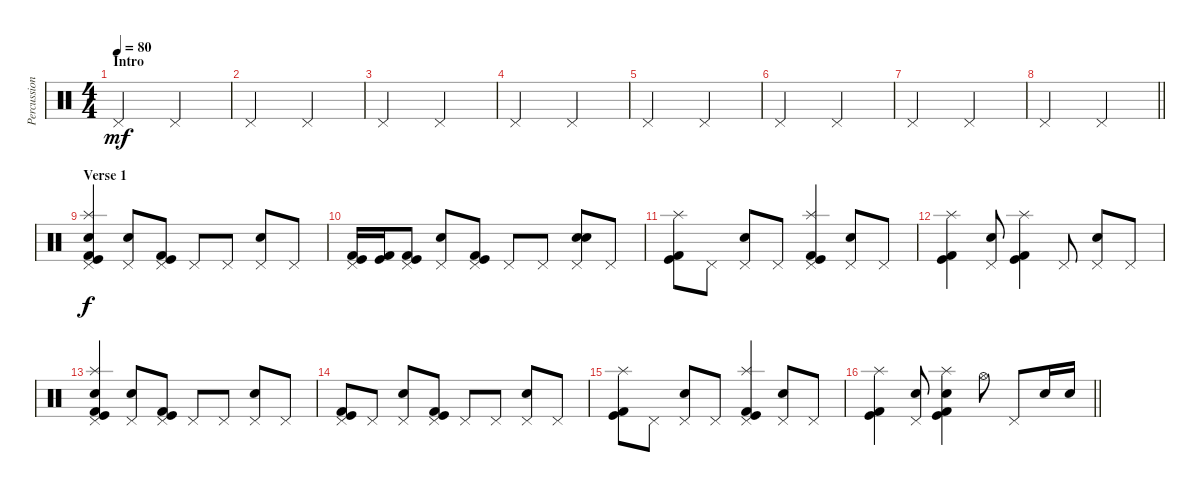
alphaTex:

\track ("Percussion" "Percussion") {instrument percussion}
\staff {score}
\articulation defaults
\ts (4 4)
\section ("" "Intro")
\tempo 80
\clef neutral
\ks c "Pedal Hi-Hat (hit)".2{dy mf} "Pedal Hi-Hat (hit)".2
|
"Pedal Hi-Hat (hit)".2 "Pedal Hi-Hat (hit)".2 |
"Pedal Hi-Hat (hit)".2 "Pedal Hi-Hat (hit)".2 |
"Pedal Hi-Hat (hit)".2 "Pedal Hi-Hat (hit)".2 |
"Pedal Hi-Hat (hit)".2 "Pedal Hi-Hat (hit)".2 |
"Pedal Hi-Hat (hit)".2 "Pedal Hi-Hat (hit)".2 |
"Pedal Hi-Hat (hit)".2 "Pedal Hi-Hat (hit)".2 |
\barLineRight lightlight "Pedal Hi-Hat (hit)".2 "Pedal Hi-Hat (hit)".2
|
\section ("" "Verse 1")
("Splash (hit)" "Snare (hit) 2" "Pedal Hi-Hat (hit)" "Kick (hit)" "Kick (hit) 2").4{dy f} ("Snare (hit) 2" "Pedal Hi-Hat (hit)").8 ("Pedal Hi-Hat (hit)" "Kick (hit)" "Kick (hit) 2").8 "Pedal Hi-Hat (hit)".8 "Pedal Hi-Hat (hit)".8 ("Snare (hit) 2" "Pedal Hi-Hat (hit)").8 "Pedal Hi-Hat (hit)".8 |
("Pedal Hi-Hat (hit)" "Kick (hit)" "Kick (hit) 2").16 ("Kick (hit)" "Kick (hit) 2").16 ("Pedal Hi-Hat (hit)" "Kick (hit)" "Kick (hit) 2").8 ("Snare (hit) 2" "Pedal Hi-Hat (hit)").8 ("Pedal Hi-Hat (hit)" "Kick (hit)" "Kick (hit) 2").8 "Pedal Hi-Hat (hit)".8 "Pedal Hi-Hat (hit)".8 ("Electric Snare (hit)" "Snare (hit) 2" "Pedal Hi-Hat (hit)").8 "Pedal Hi-Hat (hit)".8 |
("Splash (hit)" "Kick (hit)" "Kick (hit) 2").8 "Pedal Hi-Hat (hit)".8 ("Snare (hit) 2" "Pedal Hi-Hat (hit)").8 "Pedal Hi-Hat (hit)".8 ("Splash (hit)" "Pedal Hi-Hat (hit)" "Kick (hit)" "Kick (hit) 2").4 ("Snare (hit) 2" "Pedal Hi-Hat (hit)").8 "Pedal Hi-Hat (hit)".8 |
("Splash (hit)" "Kick (hit)" "Kick (hit) 2").4 ("Snare (hit) 2" "Pedal Hi-Hat (hit)").8 ("Splash (hit)" "Kick (hit)" "Kick (hit) 2").4 "Pedal Hi-Hat (hit)".8 ("Snare (hit) 2" "Pedal Hi-Hat (hit)").8 "Pedal Hi-Hat (hit)".8 |
("Splash (hit)" "Snare (hit) 2" "Pedal Hi-Hat (hit)" "Kick (hit)" "Kick (hit) 2").4 ("Snare (hit) 2" "Pedal Hi-Hat (hit)").8 ("Pedal Hi-Hat (hit)" "Kick (hit)" "Kick (hit) 2").8 "Pedal Hi-Hat (hit)".8 "Pedal Hi-Hat (hit)".8 ("Snare (hit) 2" "Pedal Hi-Hat (hit)").8 "Pedal Hi-Hat (hit)".8 |
("Pedal Hi-Hat (hit)" "Kick (hit)" "Kick (hit) 2").8 "Pedal Hi-Hat (hit)".8 ("Snare (hit) 2" "Pedal Hi-Hat (hit)").8 ("Pedal Hi-Hat (hit)" "Kick (hit)" "Kick (hit) 2").8 "Pedal Hi-Hat (hit)".8 "Pedal Hi-Hat (hit)".8 ("Snare (hit) 2" "Pedal Hi-Hat (hit)").8 "Pedal Hi-Hat (hit)".8 |
("Splash (hit)" "Kick (hit)" "Kick (hit) 2").8 "Pedal Hi-Hat (hit)".8 ("Snare (hit) 2" "Pedal Hi-Hat (hit)").8 "Pedal Hi-Hat (hit)".8 ("Splash (hit)" "Pedal Hi-Hat (hit)" "Kick (hit)" "Kick (hit) 2").4 ("Snare (hit) 2" "Pedal Hi-Hat (hit)").8 "Pedal Hi-Hat (hit)".8 |
\barLineRight lightlight
("Splash (hit)" "Kick (hit)" "Kick (hit) 2").4 ("Snare (hit) 2" "Pedal Hi-Hat (hit)").8 ("Splash (hit)" "Snare (hit) 2" "Kick (hit)" "Kick (hit) 2").4 "Hi-Hat (open)".8 "Pedal Hi-Hat (hit)".8 "Snare (hit) 2".16 "Snare (hit) 2".16
